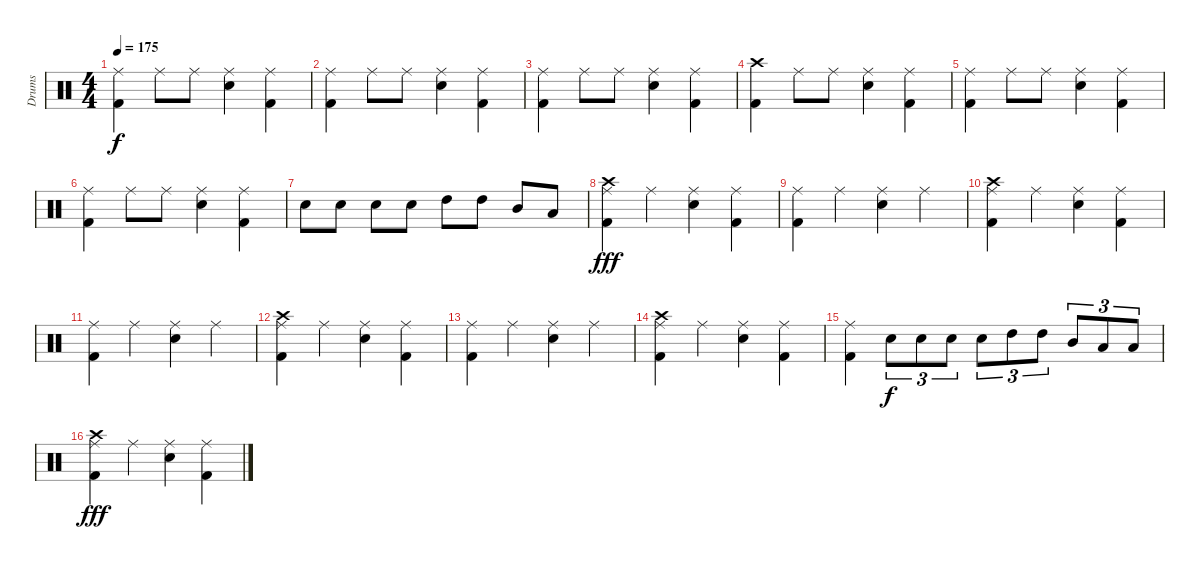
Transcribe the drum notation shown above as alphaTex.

\track ("Drums" "Drums") {instrument percussion}
\staff {score}
\articulation defaults
\ts (4 4)
\tempo 175
\clef neutral
\ks c
("Ride (middle)" "Kick (hit) 2").4{dy f} "Ride (middle)".8 "Ride (middle)".8 ("Ride (middle)" "Snare (hit) 2").4 ("Ride (middle)" "Kick (hit) 2").4 |
("Ride (middle)" "Kick (hit) 2").4 "Ride (middle)".8 "Ride (middle)".8 ("Ride (middle)" "Snare (hit) 2").4 ("Ride (middle)" "Kick (hit) 2").4 |
("Ride (middle)" "Kick (hit) 2").4 "Ride (middle)".8 "Ride (middle)".8 ("Ride (middle)" "Snare (hit) 2").4 ("Ride (middle)" "Kick (hit) 2").4 |
("Crash high (hit)" "Kick (hit) 2").4 "Ride (middle)".8 "Ride (middle)".8 ("Ride (middle)" "Snare (hit) 2").4 ("Ride (middle)" "Kick (hit) 2").4 |
("Ride (middle)" "Kick (hit) 2").4 "Ride (middle)".8 "Ride (middle)".8 ("Ride (middle)" "Snare (hit) 2").4 ("Ride (middle)" "Kick (hit) 2").4 |
("Ride (middle)" "Kick (hit) 2").4 "Ride (middle)".8 "Ride (middle)".8 ("Ride (middle)" "Snare (hit) 2").4 ("Ride (middle)" "Kick (hit) 2").4 |
"Snare (hit) 2".8 "Snare (hit) 2".8 "Snare (hit) 2".8 "Snare (hit) 2".8 "High Tom (hit)".8 "High Tom (hit)".8 "Mid Tom (hit)".8 "Low Tom (hit)".8 |
("Crash high (hit)" "Ride (middle)" "Kick (hit) 2").4{dy fff} "Ride (middle)".4 ("Ride (middle)" "Snare (hit) 2").4 ("Ride (middle)" "Kick (hit) 2").4 |
("Ride (middle)" "Kick (hit) 2").4 "Ride (middle)".4 ("Ride (middle)" "Snare (hit) 2").4 "Ride (middle)".4 |
("Crash high (hit)" "Ride (middle)" "Kick (hit) 2").4 "Ride (middle)".4 ("Ride (middle)" "Snare (hit) 2").4 ("Ride (middle)" "Kick (hit) 2").4 |
("Ride (middle)" "Kick (hit) 2").4 "Ride (middle)".4 ("Ride (middle)" "Snare (hit) 2").4 "Ride (middle)".4 |
("Crash high (hit)" "Ride (middle)" "Kick (hit) 2").4 "Ride (middle)".4 ("Ride (middle)" "Snare (hit) 2").4 ("Ride (middle)" "Kick (hit) 2").4 |
("Ride (middle)" "Kick (hit) 2").4 "Ride (middle)".4 ("Ride (middle)" "Snare (hit) 2").4 "Ride (middle)".4 |
("Crash high (hit)" "Ride (middle)" "Kick (hit) 2").4 "Ride (middle)".4 ("Ride (middle)" "Snare (hit) 2").4 ("Ride (middle)" "Kick (hit) 2").4 |
("Ride (middle)" "Kick (hit) 2").4 "Snare (hit) 2".8{tu (3 2) dy f} "Snare (hit) 2".8{tu (3 2)} "Snare (hit) 2".8{tu (3 2)} "Snare (hit) 2".8{tu (3 2)} "High Tom (hit)".8{tu (3 2)} "High Tom (hit)".8{tu (3 2)} "Mid Tom (hit)".8{tu (3 2)} "Low Tom (hit)".8{tu (3 2)} "Low Tom (hit)".8{tu (3 2)} |
("Crash high (hit)" "Ride (middle)" "Kick (hit) 2").4{dy fff} "Ride (middle)".4 ("Ride (middle)" "Snare (hit) 2").4 ("Ride (middle)" "Kick (hit) 2").4
